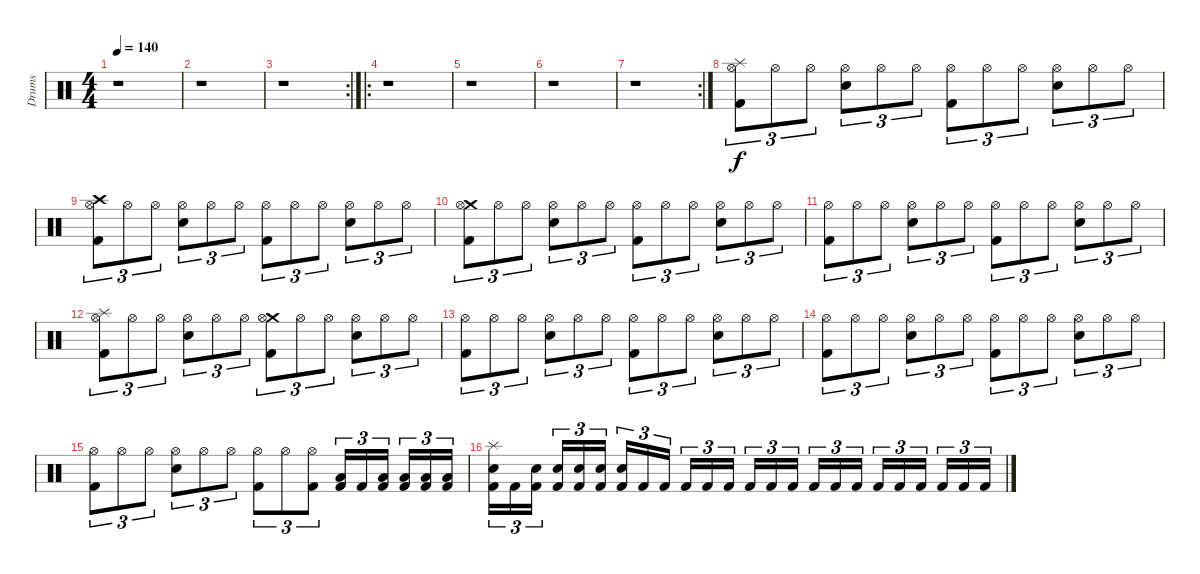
\track ("Drums" "Drums") {instrument percussion}
\staff {score}
\articulation defaults
\ts (4 4)
\tempo 140
\clef neutral
\ks c
r.1{dy f} |
r.1 |
\rc 2
r.1 |
\ro
r.1 |
r.1 |
r.1 |
\rc 2
r.1 |
("Splash (hit)" "Hi-Hat (open)" "Kick (hit) 2").8{tu (3 2) volume 16} "Hi-Hat (open)".8{tu (3 2)} "Hi-Hat (open)".8{tu (3 2)} ("Hi-Hat (open)" "Electric Snare (hit)").8{tu (3 2)} "Hi-Hat (open)".8{tu (3 2)} "Hi-Hat (open)".8{tu (3 2)} ("Hi-Hat (open)" "Kick (hit) 2").8{tu (3 2)} "Hi-Hat (open)".8{tu (3 2)} "Hi-Hat (open)".8{tu (3 2)} ("Hi-Hat (open)" "Electric Snare (hit)").8{tu (3 2)} "Hi-Hat (open)".8{tu (3 2)} "Hi-Hat (open)".8{tu (3 2)} |
("Crash high (hit)" "Hi-Hat (open)" "Kick (hit) 2").8{tu (3 2)} "Hi-Hat (open)".8{tu (3 2)} "Hi-Hat (open)".8{tu (3 2)} ("Hi-Hat (open)" "Electric Snare (hit)").8{tu (3 2)} "Hi-Hat (open)".8{tu (3 2)} "Hi-Hat (open)".8{tu (3 2)} ("Hi-Hat (open)" "Kick (hit) 2").8{tu (3 2)} "Hi-Hat (open)".8{tu (3 2)} "Hi-Hat (open)".8{tu (3 2)} ("Hi-Hat (open)" "Electric Snare (hit)").8{tu (3 2)} "Hi-Hat (open)".8{tu (3 2)} "Hi-Hat (open)".8{tu (3 2)} |
("Crash medium (hit)" "Hi-Hat (open)" "Kick (hit) 2").8{tu (3 2)} "Hi-Hat (open)".8{tu (3 2)} "Hi-Hat (open)".8{tu (3 2)} ("Hi-Hat (open)" "Electric Snare (hit)").8{tu (3 2)} "Hi-Hat (open)".8{tu (3 2)} "Hi-Hat (open)".8{tu (3 2)} ("Hi-Hat (open)" "Kick (hit) 2").8{tu (3 2)} "Hi-Hat (open)".8{tu (3 2)} "Hi-Hat (open)".8{tu (3 2)} ("Hi-Hat (open)" "Electric Snare (hit)").8{tu (3 2)} "Hi-Hat (open)".8{tu (3 2)} "Hi-Hat (open)".8{tu (3 2)} |
("Hi-Hat (open)" "Kick (hit) 2").8{tu (3 2)} "Hi-Hat (open)".8{tu (3 2)} "Hi-Hat (open)".8{tu (3 2)} ("Hi-Hat (open)" "Electric Snare (hit)").8{tu (3 2)} "Hi-Hat (open)".8{tu (3 2)} "Hi-Hat (open)".8{tu (3 2)} ("Hi-Hat (open)" "Kick (hit) 2").8{tu (3 2)} "Hi-Hat (open)".8{tu (3 2)} "Hi-Hat (open)".8{tu (3 2)} ("Hi-Hat (open)" "Electric Snare (hit)").8{tu (3 2)} "Hi-Hat (open)".8{tu (3 2)} "Hi-Hat (open)".8{tu (3 2)} |
("Splash (hit)" "Hi-Hat (open)" "Kick (hit) 2").8{tu (3 2)} "Hi-Hat (open)".8{tu (3 2)} "Hi-Hat (open)".8{tu (3 2)} ("Hi-Hat (open)" "Electric Snare (hit)").8{tu (3 2)} "Hi-Hat (open)".8{tu (3 2)} "Hi-Hat (open)".8{tu (3 2)} ("Crash medium (hit)" "Hi-Hat (open)" "Kick (hit) 2").8{tu (3 2)} "Hi-Hat (open)".8{tu (3 2)} "Hi-Hat (open)".8{tu (3 2)} ("Hi-Hat (open)" "Electric Snare (hit)").8{tu (3 2)} "Hi-Hat (open)".8{tu (3 2)} "Hi-Hat (open)".8{tu (3 2)} |
("Hi-Hat (open)" "Kick (hit) 2").8{tu (3 2)} "Hi-Hat (open)".8{tu (3 2)} "Hi-Hat (open)".8{tu (3 2)} ("Hi-Hat (open)" "Electric Snare (hit)").8{tu (3 2)} "Hi-Hat (open)".8{tu (3 2)} "Hi-Hat (open)".8{tu (3 2)} ("Hi-Hat (open)" "Kick (hit) 2").8{tu (3 2)} "Hi-Hat (open)".8{tu (3 2)} "Hi-Hat (open)".8{tu (3 2)} ("Hi-Hat (open)" "Electric Snare (hit)").8{tu (3 2)} "Hi-Hat (open)".8{tu (3 2)} "Hi-Hat (open)".8{tu (3 2)} |
("Hi-Hat (open)" "Kick (hit) 2").8{tu (3 2)} "Hi-Hat (open)".8{tu (3 2)} "Hi-Hat (open)".8{tu (3 2)} ("Hi-Hat (open)" "Electric Snare (hit)").8{tu (3 2)} "Hi-Hat (open)".8{tu (3 2)} "Hi-Hat (open)".8{tu (3 2)} ("Hi-Hat (open)" "Kick (hit) 2").8{tu (3 2)} "Hi-Hat (open)".8{tu (3 2)} "Hi-Hat (open)".8{tu (3 2)} ("Hi-Hat (open)" "Electric Snare (hit)").8{tu (3 2)} "Hi-Hat (open)".8{tu (3 2)} "Hi-Hat (open)".8{tu (3 2)} |
("Hi-Hat (open)" "Kick (hit) 2").8{tu (3 2)} "Hi-Hat (open)".8{tu (3 2)} "Hi-Hat (open)".8{tu (3 2)} ("Hi-Hat (open)" "Electric Snare (hit)").8{tu (3 2)} "Hi-Hat (open)".8{tu (3 2)} "Hi-Hat (open)".8{tu (3 2)} ("Hi-Hat (open)" "Kick (hit) 2").8{tu (3 2)} "Hi-Hat (open)".8{tu (3 2)} ("Hi-Hat (open)" "Kick (hit) 2").8{tu (3 2)} ("Low Floor Tom (hit)" "Kick (hit) 2").16{tu (3 2)} "Kick (hit) 2".16{tu (3 2)} ("Low Floor Tom (hit)" "Kick (hit) 2").16{tu (3 2)} ("Low Floor Tom (hit)" "Kick (hit) 2").16{tu (3 2)} ("Low Floor Tom (hit)" "Kick (hit) 2").16{tu (3 2)} ("Low Floor Tom (hit)" "Kick (hit) 2").16{tu (3 2)} |
("Splash (hit)" "Electric Snare (hit)" "Kick (hit) 2").16{tu (3 2)} "Kick (hit) 2".16{tu (3 2)} ("Electric Snare (hit)" "Kick (hit) 2").16{tu (3 2)} ("Electric Snare (hit)" "Kick (hit) 2").16{tu (3 2)} ("Electric Snare (hit)" "Kick (hit) 2").16{tu (3 2)} ("Electric Snare (hit)" "Kick (hit) 2").16{tu (3 2)} ("Electric Snare (hit)" "Kick (hit) 2").16{tu (3 2)} "Kick (hit) 2".16{tu (3 2)} "Kick (hit) 2".16{tu (3 2)} "Kick (hit) 2".16{tu (3 2)} "Kick (hit) 2".16{tu (3 2)} "Kick (hit) 2".16{tu (3 2)} "Kick (hit) 2".16{tu (3 2)} "Kick (hit) 2".16{tu (3 2)} "Kick (hit) 2".16{tu (3 2)} "Kick (hit) 2".16{tu (3 2)} "Kick (hit) 2".16{tu (3 2)} "Kick (hit) 2".16{tu (3 2)} "Kick (hit) 2".16{tu (3 2)} "Kick (hit) 2".16{tu (3 2)} "Kick (hit) 2".16{tu (3 2)} "Kick (hit) 2".16{tu (3 2)} "Kick (hit) 2".16{tu (3 2)} "Kick (hit) 2".16{tu (3 2)}
